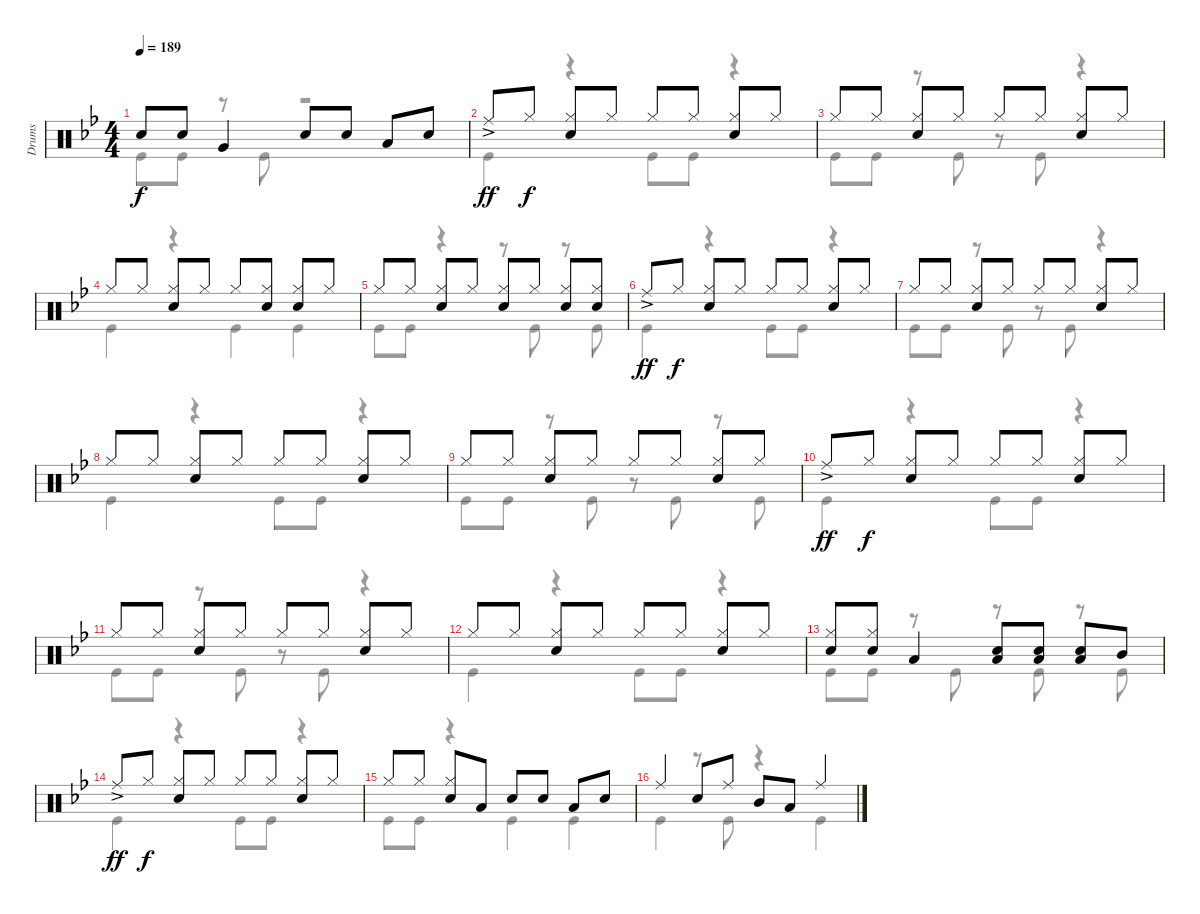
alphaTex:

\track ("Drums" "Drums") {instrument percussion}
\staff {score}
\articulation defaults
\voice
\ts (4 4)
\tempo 189
\clef neutral
\ks bb "Snare (hit) 2".8{dy f} "Snare (hit) 2".8 "Very Low Tom (hit)".4 "Snare (hit) 2".8 "Snare (hit) 2".8 "Low Tom (hit)".8 "Snare (hit) 2".8
|
"Ride (middle)"{ac}.8{dy ff} "Hi-Hat (closed)".8{dy f} ("Hi-Hat (closed)" "Snare (hit) 2").8 "Hi-Hat (closed)".8 "Hi-Hat (closed)".8 "Hi-Hat (closed)".8 ("Hi-Hat (closed)" "Snare (hit) 2").8 "Hi-Hat (closed)".8 |
"Hi-Hat (closed)".8 "Hi-Hat (closed)".8 ("Hi-Hat (closed)" "Snare (hit) 2").8 "Hi-Hat (closed)".8 "Hi-Hat (closed)".8 "Hi-Hat (closed)".8 ("Hi-Hat (closed)" "Snare (hit) 2").8 "Hi-Hat (closed)".8 |
"Hi-Hat (closed)".8 "Hi-Hat (closed)".8 ("Hi-Hat (closed)" "Snare (hit) 2").8 "Hi-Hat (closed)".8 "Hi-Hat (closed)".8 ("Hi-Hat (closed)" "Snare (hit) 2").8 ("Hi-Hat (closed)" "Snare (hit) 2").8 "Hi-Hat (closed)".8 |
"Hi-Hat (closed)".8 "Hi-Hat (closed)".8 ("Hi-Hat (closed)" "Snare (hit) 2").8 "Hi-Hat (closed)".8 ("Hi-Hat (closed)" "Snare (hit) 2").8 "Hi-Hat (closed)".8 ("Hi-Hat (closed)" "Snare (hit) 2").8 ("Hi-Hat (closed)" "Snare (hit) 2").8 |
"Ride (middle)"{ac}.8{dy ff} "Hi-Hat (closed)".8{dy f} ("Hi-Hat (closed)" "Snare (hit) 2").8 "Hi-Hat (closed)".8 "Hi-Hat (closed)".8 "Hi-Hat (closed)".8 ("Hi-Hat (closed)" "Snare (hit) 2").8 "Hi-Hat (closed)".8 |
"Hi-Hat (closed)".8 "Hi-Hat (closed)".8 ("Hi-Hat (closed)" "Snare (hit) 2").8 "Hi-Hat (closed)".8 "Hi-Hat (closed)".8 "Hi-Hat (closed)".8 ("Hi-Hat (closed)" "Snare (hit) 2").8 "Hi-Hat (closed)".8 |
"Hi-Hat (closed)".8 "Hi-Hat (closed)".8 ("Hi-Hat (closed)" "Snare (hit) 2").8 "Hi-Hat (closed)".8 "Hi-Hat (closed)".8 "Hi-Hat (closed)".8 ("Hi-Hat (closed)" "Snare (hit) 2").8 "Hi-Hat (closed)".8 |
"Hi-Hat (closed)".8 "Hi-Hat (closed)".8 ("Hi-Hat (closed)" "Snare (hit) 2").8 "Hi-Hat (closed)".8 "Hi-Hat (closed)".8 "Hi-Hat (closed)".8 ("Hi-Hat (closed)" "Snare (hit) 2").8 "Hi-Hat (closed)".8 |
"Ride (middle)"{ac}.8{dy ff} "Hi-Hat (closed)".8{dy f} ("Hi-Hat (closed)" "Snare (hit) 2").8 "Hi-Hat (closed)".8 "Hi-Hat (closed)".8 "Hi-Hat (closed)".8 ("Hi-Hat (closed)" "Snare (hit) 2").8 "Hi-Hat (closed)".8 |
"Hi-Hat (closed)".8 "Hi-Hat (closed)".8 ("Hi-Hat (closed)" "Snare (hit) 2").8 "Hi-Hat (closed)".8 "Hi-Hat (closed)".8 "Hi-Hat (closed)".8 ("Hi-Hat (closed)" "Snare (hit) 2").8 "Hi-Hat (closed)".8 |
"Hi-Hat (closed)".8 "Hi-Hat (closed)".8 ("Hi-Hat (closed)" "Snare (hit) 2").8 "Hi-Hat (closed)".8 "Hi-Hat (closed)".8 "Hi-Hat (closed)".8 ("Hi-Hat (closed)" "Snare (hit) 2").8 "Hi-Hat (closed)".8 |
("Hi-Hat (closed)" "Snare (hit) 2").8 ("Hi-Hat (closed)" "Snare (hit) 2").8 "Low Tom (hit)".4 ("Snare (hit) 2" "Low Tom (hit)").8 ("Snare (hit) 2" "Low Tom (hit)").8 ("Snare (hit) 2" "Low Tom (hit)").8 "Mid Tom (hit)".8 |
"Ride (middle)"{ac}.8{dy ff} "Hi-Hat (closed)".8{dy f} ("Hi-Hat (closed)" "Snare (hit) 2").8 "Hi-Hat (closed)".8 "Hi-Hat (closed)".8 "Hi-Hat (closed)".8 ("Hi-Hat (closed)" "Snare (hit) 2").8 "Hi-Hat (closed)".8 |
"Hi-Hat (closed)".8 "Hi-Hat (closed)".8 ("Hi-Hat (closed)" "Snare (hit) 2").8 "Low Tom (hit)".8 "Snare (hit) 2".8 "Snare (hit) 2".8 "Low Tom (hit)".8 "Snare (hit) 2".8 |
"Ride (middle)".4 "Snare (hit) 2".8 "Ride (middle)".8 "Mid Tom (hit)".8 "Low Tom (hit)".8 "Ride (middle)".4
\voice
\clef neutral
\ottava regular
\simile none
\ks bb "Kick (hit)".8{dy f} "Kick (hit)".8
r.8 "Kick (hit)".8 r.2 |
"Kick (hit)".4 r.4 "Kick (hit)".8 "Kick (hit)".8 r.4 |
"Kick (hit)".8 "Kick (hit)".8 r.8 "Kick (hit)".8 r.8 "Kick (hit)".8 r.4 |
"Kick (hit)".4 r.4 "Kick (hit)".4 "Kick (hit)".4 |
"Kick (hit)".8 "Kick (hit)".8 r.4 r.8 "Kick (hit)".8 r.8 "Kick (hit)".8 |
"Kick (hit)".4 r.4 "Kick (hit)".8 "Kick (hit)".8 r.4 |
"Kick (hit)".8 "Kick (hit)".8 r.8 "Kick (hit)".8 r.8 "Kick (hit)".8 r.4 |
"Kick (hit)".4 r.4 "Kick (hit)".8 "Kick (hit)".8 r.4 |
"Kick (hit)".8 "Kick (hit)".8 r.8 "Kick (hit)".8 r.8 "Kick (hit)".8 r.8 "Kick (hit)".8 |
"Kick (hit)".4 r.4 "Kick (hit)".8 "Kick (hit)".8 r.4 |
"Kick (hit)".8 "Kick (hit)".8 r.8 "Kick (hit)".8 r.8 "Kick (hit)".8 r.4 |
"Kick (hit)".4 r.4 "Kick (hit)".8 "Kick (hit)".8 r.4 |
"Kick (hit)".8 "Kick (hit)".8 r.8 "Kick (hit)".8 r.8 "Kick (hit)".8 r.8 "Kick (hit)".8 |
"Kick (hit)".4 r.4 "Kick (hit)".8 "Kick (hit)".8 r.4 |
"Kick (hit)".8 "Kick (hit)".8 r.4 "Kick (hit)".4 "Kick (hit)".4 |
"Kick (hit)".4 r.8 "Kick (hit)".8 r.4 "Kick (hit)".4
